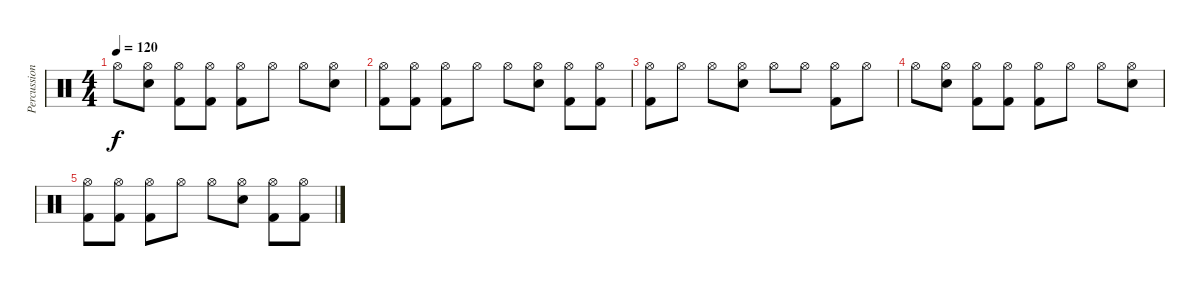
\track ("Percussion" "Percussion") {instrument percussion}
\staff {score}
\articulation defaults
\ts (4 4)
\tempo 120
\clef neutral
\ks c "Hi-Hat (open)".8{dy f}
("Hi-Hat (open)" "Electric Snare (hit)").8 ("Hi-Hat (open)" "Kick (hit) 2").8 ("Hi-Hat (open)" "Kick (hit) 2").8 ("Hi-Hat (open)" "Kick (hit) 2").8 "Hi-Hat (open)".8 "Hi-Hat (open)".8 ("Hi-Hat (open)" "Electric Snare (hit)").8 |
("Hi-Hat (open)" "Kick (hit) 2").8 ("Hi-Hat (open)" "Kick (hit) 2").8 ("Hi-Hat (open)" "Kick (hit) 2").8 "Hi-Hat (open)".8 "Hi-Hat (open)".8 ("Hi-Hat (open)" "Electric Snare (hit)").8 ("Hi-Hat (open)" "Kick (hit) 2").8 ("Hi-Hat (open)" "Kick (hit) 2").8 |
("Hi-Hat (open)" "Kick (hit) 2").8 "Hi-Hat (open)".8 "Hi-Hat (open)".8 ("Hi-Hat (open)" "Electric Snare (hit)").8 "Hi-Hat (open)".8 "Hi-Hat (open)".8 ("Hi-Hat (open)" "Kick (hit) 2").8 "Hi-Hat (open)".8 |
"Hi-Hat (open)".8 ("Hi-Hat (open)" "Electric Snare (hit)").8 ("Hi-Hat (open)" "Kick (hit) 2").8 ("Hi-Hat (open)" "Kick (hit) 2").8 ("Hi-Hat (open)" "Kick (hit) 2").8 "Hi-Hat (open)".8 "Hi-Hat (open)".8 ("Hi-Hat (open)" "Electric Snare (hit)").8 |
("Hi-Hat (open)" "Kick (hit) 2").8 ("Hi-Hat (open)" "Kick (hit) 2").8 ("Hi-Hat (open)" "Kick (hit) 2").8 "Hi-Hat (open)".8 "Hi-Hat (open)".8 ("Hi-Hat (open)" "Electric Snare (hit)").8 ("Hi-Hat (open)" "Kick (hit) 2").8 ("Hi-Hat (open)" "Kick (hit) 2").8
